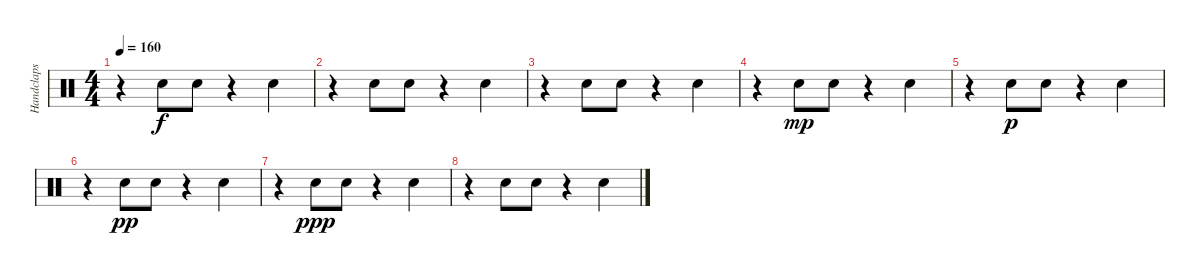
\track ("Handclaps" "Handclaps") {instrument percussion}
\staff {score}
\articulation defaults
\ts (4 4)
\tempo 160
\clef neutral
\ks c
r.4{dy f} "Hand Clap (hit)".8 "Hand Clap (hit)".8 r.4 "Hand Clap (hit)".4 |
r.4 "Hand Clap (hit)".8 "Hand Clap (hit)".8 r.4 "Hand Clap (hit)".4 |
r.4 "Hand Clap (hit)".8 "Hand Clap (hit)".8 r.4 "Hand Clap (hit)".4 |
r.4 "Hand Clap (hit)".8{dy mp} "Hand Clap (hit)".8 r.4 "Hand Clap (hit)".4 |
r.4 "Hand Clap (hit)".8{dy p} "Hand Clap (hit)".8 r.4 "Hand Clap (hit)".4 |
r.4 "Hand Clap (hit)".8{dy pp} "Hand Clap (hit)".8 r.4 "Hand Clap (hit)".4 |
r.4 "Hand Clap (hit)".8{dy ppp} "Hand Clap (hit)".8 r.4 "Hand Clap (hit)".4 |
r.4 "Hand Clap (hit)".8 "Hand Clap (hit)".8 r.4 "Hand Clap (hit)".4
